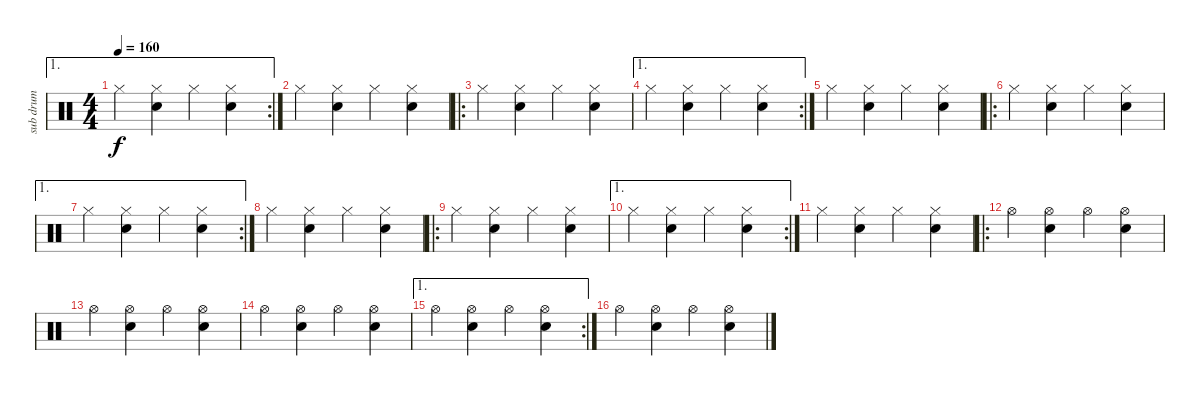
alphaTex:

\track ("sub drum" "sub drum") {instrument percussion}
\staff {score}
\articulation defaults
\ae 1
\rc 2
\ts (4 4)
\tempo 160
\clef neutral
\ks c "Hi-Hat (closed)".4{dy f}
("Hi-Hat (closed)" "Snare (hit) 2").4 "Hi-Hat (closed)".4 ("Hi-Hat (closed)" "Snare (hit) 2").4 |
"Hi-Hat (closed)".4 ("Hi-Hat (closed)" "Snare (hit) 2").4 "Hi-Hat (closed)".4 ("Hi-Hat (closed)" "Snare (hit) 2").4 |
\ro "Hi-Hat (closed)".4
("Hi-Hat (closed)" "Snare (hit) 2").4 "Hi-Hat (closed)".4 ("Hi-Hat (closed)" "Snare (hit) 2").4 |
\ae 1
\rc 2 "Hi-Hat (closed)".4
("Hi-Hat (closed)" "Snare (hit) 2").4 "Hi-Hat (closed)".4 ("Hi-Hat (closed)" "Snare (hit) 2").4 |
"Hi-Hat (closed)".4 ("Hi-Hat (closed)" "Snare (hit) 2").4 "Hi-Hat (closed)".4 ("Hi-Hat (closed)" "Snare (hit) 2").4 |
\ro "Hi-Hat (closed)".4
("Hi-Hat (closed)" "Snare (hit) 2").4 "Hi-Hat (closed)".4 ("Hi-Hat (closed)" "Snare (hit) 2").4 |
\ae 1
\rc 2 "Hi-Hat (closed)".4
("Hi-Hat (closed)" "Snare (hit) 2").4 "Hi-Hat (closed)".4 ("Hi-Hat (closed)" "Snare (hit) 2").4 |
"Hi-Hat (closed)".4 ("Hi-Hat (closed)" "Snare (hit) 2").4 "Hi-Hat (closed)".4 ("Hi-Hat (closed)" "Snare (hit) 2").4 |
\ro "Hi-Hat (closed)".4
("Hi-Hat (closed)" "Snare (hit) 2").4 "Hi-Hat (closed)".4 ("Hi-Hat (closed)" "Snare (hit) 2").4 |
\ae 1
\rc 2 "Hi-Hat (closed)".4
("Hi-Hat (closed)" "Snare (hit) 2").4 "Hi-Hat (closed)".4 ("Hi-Hat (closed)" "Snare (hit) 2").4 |
"Hi-Hat (closed)".4 ("Hi-Hat (closed)" "Snare (hit) 2").4 "Hi-Hat (closed)".4 ("Hi-Hat (closed)" "Snare (hit) 2").4 |
\ro "Hi-Hat (open)".4
("Hi-Hat (open)" "Snare (hit) 2").4 "Hi-Hat (open)".4 ("Hi-Hat (open)" "Snare (hit) 2").4 |
"Hi-Hat (open)".4 ("Hi-Hat (open)" "Snare (hit) 2").4 "Hi-Hat (open)".4 ("Hi-Hat (open)" "Snare (hit) 2").4 |
"Hi-Hat (open)".4 ("Hi-Hat (open)" "Snare (hit) 2").4 "Hi-Hat (open)".4 ("Hi-Hat (open)" "Snare (hit) 2").4 |
\ae 1
\rc 2 "Hi-Hat (open)".4
("Hi-Hat (open)" "Snare (hit) 2").4 "Hi-Hat (open)".4 ("Hi-Hat (open)" "Snare (hit) 2").4 |
"Hi-Hat (open)".4 ("Hi-Hat (open)" "Snare (hit) 2").4 "Hi-Hat (open)".4 ("Hi-Hat (open)" "Snare (hit) 2").4
